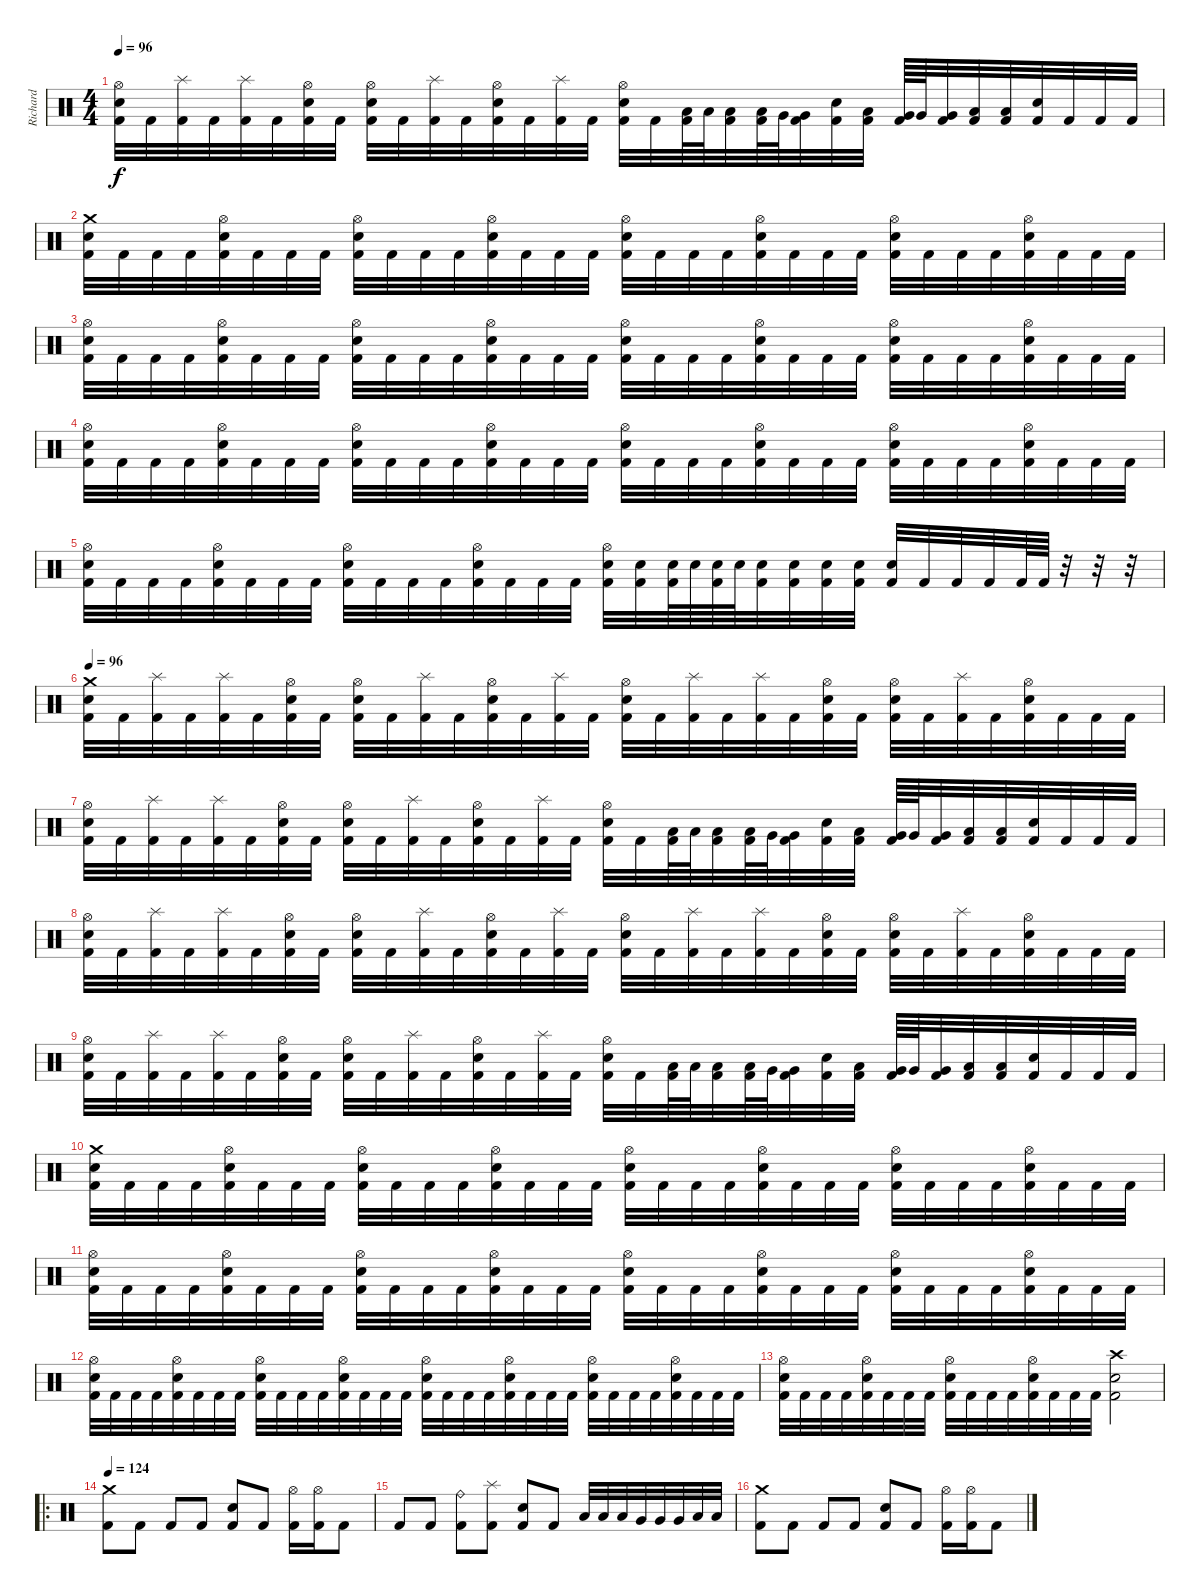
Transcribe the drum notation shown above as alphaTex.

\track ("Richard" "Richard") {instrument percussion}
\staff {score}
\articulation defaults
\ts (4 4)
\tempo 96
\clef neutral
\ks c
("Hi-Hat (open)" "Electric Snare (hit)" "Kick (hit) 2").32{dy f} "Kick (hit) 2".32 ("Splash (hit)" "Kick (hit) 2").32 "Kick (hit) 2".32 ("Splash (hit)" "Kick (hit) 2").32 "Kick (hit) 2".32 ("Hi-Hat (open)" "Electric Snare (hit)" "Kick (hit) 2").32 "Kick (hit) 2".32 ("Hi-Hat (open)" "Electric Snare (hit)" "Kick (hit) 2").32 "Kick (hit) 2".32 ("Splash (hit)" "Kick (hit) 2").32 "Kick (hit) 2".32 ("Hi-Hat (open)" "Electric Snare (hit)" "Kick (hit) 2").32 "Kick (hit) 2".32 ("Splash (hit)" "Kick (hit) 2").32 "Kick (hit) 2".32 ("Hi-Hat (open)" "Electric Snare (hit)" "Kick (hit) 2").32 "Kick (hit) 2".32 ("Low Tom (hit)" "Kick (hit) 2").64 "Low Tom (hit)".64 ("Low Tom (hit)" "Kick (hit) 2").32 ("Low Tom (hit)" "Kick (hit) 2").64 "Very Low Tom (hit)".64 ("Very Low Tom (hit)" "Kick (hit) 2").32 ("Electric Snare (hit)" "Kick (hit) 2").32 ("Low Tom (hit)" "Kick (hit) 2").32 ("Very Low Tom (hit)" "Kick (hit) 2").64 "Very Low Tom (hit)".64 ("Very Low Tom (hit)" "Kick (hit) 2").32 ("Low Floor Tom (hit)" "Kick (hit) 2").32 ("Low Floor Tom (hit)" "Kick (hit) 2").32 ("Electric Snare (hit)" "Kick (hit) 2").32 "Kick (hit) 2".32 "Kick (hit) 2".32 "Kick (hit) 2".32 |
("Crash medium (hit)" "Electric Snare (hit)" "Kick (hit) 2").32 "Kick (hit) 2".32 "Kick (hit) 2".32 "Kick (hit) 2".32 ("Hi-Hat (open)" "Electric Snare (hit)" "Kick (hit) 2").32 "Kick (hit) 2".32 "Kick (hit) 2".32 "Kick (hit) 2".32 ("Hi-Hat (open)" "Electric Snare (hit)" "Kick (hit) 2").32 "Kick (hit) 2".32 "Kick (hit) 2".32 "Kick (hit) 2".32 ("Hi-Hat (open)" "Electric Snare (hit)" "Kick (hit) 2").32 "Kick (hit) 2".32 "Kick (hit) 2".32 "Kick (hit) 2".32 ("Hi-Hat (open)" "Electric Snare (hit)" "Kick (hit) 2").32 "Kick (hit) 2".32 "Kick (hit) 2".32 "Kick (hit) 2".32 ("Hi-Hat (open)" "Electric Snare (hit)" "Kick (hit) 2").32 "Kick (hit) 2".32 "Kick (hit) 2".32 "Kick (hit) 2".32 ("Hi-Hat (open)" "Electric Snare (hit)" "Kick (hit) 2").32 "Kick (hit) 2".32 "Kick (hit) 2".32 "Kick (hit) 2".32 ("Hi-Hat (open)" "Electric Snare (hit)" "Kick (hit) 2").32 "Kick (hit) 2".32 "Kick (hit) 2".32 "Kick (hit) 2".32 |
("Hi-Hat (open)" "Electric Snare (hit)" "Kick (hit) 2").32 "Kick (hit) 2".32 "Kick (hit) 2".32 "Kick (hit) 2".32 ("Hi-Hat (open)" "Electric Snare (hit)" "Kick (hit) 2").32 "Kick (hit) 2".32 "Kick (hit) 2".32 "Kick (hit) 2".32 ("Hi-Hat (open)" "Electric Snare (hit)" "Kick (hit) 2").32 "Kick (hit) 2".32 "Kick (hit) 2".32 "Kick (hit) 2".32 ("Hi-Hat (open)" "Electric Snare (hit)" "Kick (hit) 2").32 "Kick (hit) 2".32 "Kick (hit) 2".32 "Kick (hit) 2".32 ("Hi-Hat (open)" "Electric Snare (hit)" "Kick (hit) 2").32 "Kick (hit) 2".32 "Kick (hit) 2".32 "Kick (hit) 2".32 ("Hi-Hat (open)" "Electric Snare (hit)" "Kick (hit) 2").32 "Kick (hit) 2".32 "Kick (hit) 2".32 "Kick (hit) 2".32 ("Hi-Hat (open)" "Electric Snare (hit)" "Kick (hit) 2").32 "Kick (hit) 2".32 "Kick (hit) 2".32 "Kick (hit) 2".32 ("Hi-Hat (open)" "Electric Snare (hit)" "Kick (hit) 2").32 "Kick (hit) 2".32 "Kick (hit) 2".32 "Kick (hit) 2".32 |
("Hi-Hat (open)" "Electric Snare (hit)" "Kick (hit) 2").32 "Kick (hit) 2".32 "Kick (hit) 2".32 "Kick (hit) 2".32 ("Hi-Hat (open)" "Electric Snare (hit)" "Kick (hit) 2").32 "Kick (hit) 2".32 "Kick (hit) 2".32 "Kick (hit) 2".32 ("Hi-Hat (open)" "Electric Snare (hit)" "Kick (hit) 2").32 "Kick (hit) 2".32 "Kick (hit) 2".32 "Kick (hit) 2".32 ("Hi-Hat (open)" "Electric Snare (hit)" "Kick (hit) 2").32 "Kick (hit) 2".32 "Kick (hit) 2".32 "Kick (hit) 2".32 ("Hi-Hat (open)" "Electric Snare (hit)" "Kick (hit) 2").32 "Kick (hit) 2".32 "Kick (hit) 2".32 "Kick (hit) 2".32 ("Hi-Hat (open)" "Electric Snare (hit)" "Kick (hit) 2").32 "Kick (hit) 2".32 "Kick (hit) 2".32 "Kick (hit) 2".32 ("Hi-Hat (open)" "Electric Snare (hit)" "Kick (hit) 2").32 "Kick (hit) 2".32 "Kick (hit) 2".32 "Kick (hit) 2".32 ("Hi-Hat (open)" "Electric Snare (hit)" "Kick (hit) 2").32 "Kick (hit) 2".32 "Kick (hit) 2".32 "Kick (hit) 2".32 |
("Hi-Hat (open)" "Electric Snare (hit)" "Kick (hit) 2").32 "Kick (hit) 2".32 "Kick (hit) 2".32 "Kick (hit) 2".32 ("Hi-Hat (open)" "Electric Snare (hit)" "Kick (hit) 2").32 "Kick (hit) 2".32 "Kick (hit) 2".32 "Kick (hit) 2".32 ("Hi-Hat (open)" "Electric Snare (hit)" "Kick (hit) 2").32 "Kick (hit) 2".32 "Kick (hit) 2".32 "Kick (hit) 2".32 ("Hi-Hat (open)" "Electric Snare (hit)" "Kick (hit) 2").32 "Kick (hit) 2".32 "Kick (hit) 2".32 "Kick (hit) 2".32 ("Hi-Hat (open)" "Electric Snare (hit)" "Kick (hit) 2").32 ("Electric Snare (hit)" "Kick (hit) 2").32 ("Electric Snare (hit)" "Kick (hit) 2").64 "Electric Snare (hit)".64 ("Electric Snare (hit)" "Kick (hit) 2").64 "Electric Snare (hit)".64 ("Electric Snare (hit)" "Kick (hit) 2").32 ("Electric Snare (hit)" "Kick (hit) 2").32 ("Electric Snare (hit)" "Kick (hit) 2").32 ("Electric Snare (hit)" "Kick (hit) 2").32 ("Electric Snare (hit)" "Kick (hit) 2").32 "Kick (hit) 2".32 "Kick (hit) 2".32 "Kick (hit) 2".32 "Kick (hit) 2".64 "Kick (hit) 2".64 r.32 r.32 r.32 |
\tempo 96
("Crash medium (hit)" "Electric Snare (hit)" "Kick (hit) 2").32 "Kick (hit) 2".32 ("Splash (hit)" "Kick (hit) 2").32 "Kick (hit) 2".32 ("Splash (hit)" "Kick (hit) 2").32 "Kick (hit) 2".32 ("Hi-Hat (open)" "Electric Snare (hit)" "Kick (hit) 2").32 "Kick (hit) 2".32 ("Hi-Hat (open)" "Electric Snare (hit)" "Kick (hit) 2").32 "Kick (hit) 2".32 ("Splash (hit)" "Kick (hit) 2").32 "Kick (hit) 2".32 ("Hi-Hat (open)" "Electric Snare (hit)" "Kick (hit) 2").32 "Kick (hit) 2".32 ("Splash (hit)" "Kick (hit) 2").32 "Kick (hit) 2".32 ("Hi-Hat (open)" "Electric Snare (hit)" "Kick (hit) 2").32 "Kick (hit) 2".32 ("Splash (hit)" "Kick (hit) 2").32 "Kick (hit) 2".32 ("Splash (hit)" "Kick (hit) 2").32 "Kick (hit) 2".32 ("Hi-Hat (open)" "Electric Snare (hit)" "Kick (hit) 2").32 "Kick (hit) 2".32 ("Hi-Hat (open)" "Electric Snare (hit)" "Kick (hit) 2").32 "Kick (hit) 2".32 ("Splash (hit)" "Kick (hit) 2").32 "Kick (hit) 2".32 ("Hi-Hat (open)" "Electric Snare (hit)" "Kick (hit) 2").32 "Kick (hit) 2".32 "Kick (hit) 2".32 "Kick (hit) 2".32 |
("Hi-Hat (open)" "Electric Snare (hit)" "Kick (hit) 2").32 "Kick (hit) 2".32 ("Splash (hit)" "Kick (hit) 2").32 "Kick (hit) 2".32 ("Splash (hit)" "Kick (hit) 2").32 "Kick (hit) 2".32 ("Hi-Hat (open)" "Electric Snare (hit)" "Kick (hit) 2").32 "Kick (hit) 2".32 ("Hi-Hat (open)" "Electric Snare (hit)" "Kick (hit) 2").32 "Kick (hit) 2".32 ("Splash (hit)" "Kick (hit) 2").32 "Kick (hit) 2".32 ("Hi-Hat (open)" "Electric Snare (hit)" "Kick (hit) 2").32 "Kick (hit) 2".32 ("Splash (hit)" "Kick (hit) 2").32 "Kick (hit) 2".32 ("Hi-Hat (open)" "Electric Snare (hit)" "Kick (hit) 2").32 "Kick (hit) 2".32 ("Low Tom (hit)" "Kick (hit) 2").64 "Low Tom (hit)".64 ("Low Tom (hit)" "Kick (hit) 2").32 ("Low Tom (hit)" "Kick (hit) 2").64 "Very Low Tom (hit)".64 ("Very Low Tom (hit)" "Kick (hit) 2").32 ("Electric Snare (hit)" "Kick (hit) 2").32 ("Low Tom (hit)" "Kick (hit) 2").32 ("Very Low Tom (hit)" "Kick (hit) 2").64 "Very Low Tom (hit)".64 ("Very Low Tom (hit)" "Kick (hit) 2").32 ("Low Floor Tom (hit)" "Kick (hit) 2").32 ("Low Floor Tom (hit)" "Kick (hit) 2").32 ("Electric Snare (hit)" "Kick (hit) 2").32 "Kick (hit) 2".32 "Kick (hit) 2".32 "Kick (hit) 2".32 |
("Hi-Hat (open)" "Electric Snare (hit)" "Kick (hit) 2").32 "Kick (hit) 2".32 ("Splash (hit)" "Kick (hit) 2").32 "Kick (hit) 2".32 ("Splash (hit)" "Kick (hit) 2").32 "Kick (hit) 2".32 ("Hi-Hat (open)" "Electric Snare (hit)" "Kick (hit) 2").32 "Kick (hit) 2".32 ("Hi-Hat (open)" "Electric Snare (hit)" "Kick (hit) 2").32 "Kick (hit) 2".32 ("Splash (hit)" "Kick (hit) 2").32 "Kick (hit) 2".32 ("Hi-Hat (open)" "Electric Snare (hit)" "Kick (hit) 2").32 "Kick (hit) 2".32 ("Splash (hit)" "Kick (hit) 2").32 "Kick (hit) 2".32 ("Hi-Hat (open)" "Electric Snare (hit)" "Kick (hit) 2").32 "Kick (hit) 2".32 ("Splash (hit)" "Kick (hit) 2").32 "Kick (hit) 2".32 ("Splash (hit)" "Kick (hit) 2").32 "Kick (hit) 2".32 ("Hi-Hat (open)" "Electric Snare (hit)" "Kick (hit) 2").32 "Kick (hit) 2".32 ("Hi-Hat (open)" "Electric Snare (hit)" "Kick (hit) 2").32 "Kick (hit) 2".32 ("Splash (hit)" "Kick (hit) 2").32 "Kick (hit) 2".32 ("Hi-Hat (open)" "Electric Snare (hit)" "Kick (hit) 2").32 "Kick (hit) 2".32 "Kick (hit) 2".32 "Kick (hit) 2".32 |
("Hi-Hat (open)" "Electric Snare (hit)" "Kick (hit) 2").32 "Kick (hit) 2".32 ("Splash (hit)" "Kick (hit) 2").32 "Kick (hit) 2".32 ("Splash (hit)" "Kick (hit) 2").32 "Kick (hit) 2".32 ("Hi-Hat (open)" "Electric Snare (hit)" "Kick (hit) 2").32 "Kick (hit) 2".32 ("Hi-Hat (open)" "Electric Snare (hit)" "Kick (hit) 2").32 "Kick (hit) 2".32 ("Splash (hit)" "Kick (hit) 2").32 "Kick (hit) 2".32 ("Hi-Hat (open)" "Electric Snare (hit)" "Kick (hit) 2").32 "Kick (hit) 2".32 ("Splash (hit)" "Kick (hit) 2").32 "Kick (hit) 2".32 ("Hi-Hat (open)" "Electric Snare (hit)" "Kick (hit) 2").32 "Kick (hit) 2".32 ("Low Tom (hit)" "Kick (hit) 2").64 "Low Tom (hit)".64 ("Low Tom (hit)" "Kick (hit) 2").32 ("Low Tom (hit)" "Kick (hit) 2").64 "Very Low Tom (hit)".64 ("Very Low Tom (hit)" "Kick (hit) 2").32 ("Electric Snare (hit)" "Kick (hit) 2").32 ("Low Tom (hit)" "Kick (hit) 2").32 ("Very Low Tom (hit)" "Kick (hit) 2").64 "Very Low Tom (hit)".64 ("Very Low Tom (hit)" "Kick (hit) 2").32 ("Low Floor Tom (hit)" "Kick (hit) 2").32 ("Low Floor Tom (hit)" "Kick (hit) 2").32 ("Electric Snare (hit)" "Kick (hit) 2").32 "Kick (hit) 2".32 "Kick (hit) 2".32 "Kick (hit) 2".32 |
("Crash medium (hit)" "Electric Snare (hit)" "Kick (hit) 2").32 "Kick (hit) 2".32 "Kick (hit) 2".32 "Kick (hit) 2".32 ("Hi-Hat (open)" "Electric Snare (hit)" "Kick (hit) 2").32 "Kick (hit) 2".32 "Kick (hit) 2".32 "Kick (hit) 2".32 ("Hi-Hat (open)" "Electric Snare (hit)" "Kick (hit) 2").32 "Kick (hit) 2".32 "Kick (hit) 2".32 "Kick (hit) 2".32 ("Hi-Hat (open)" "Electric Snare (hit)" "Kick (hit) 2").32 "Kick (hit) 2".32 "Kick (hit) 2".32 "Kick (hit) 2".32 ("Hi-Hat (open)" "Electric Snare (hit)" "Kick (hit) 2").32 "Kick (hit) 2".32 "Kick (hit) 2".32 "Kick (hit) 2".32 ("Hi-Hat (open)" "Electric Snare (hit)" "Kick (hit) 2").32 "Kick (hit) 2".32 "Kick (hit) 2".32 "Kick (hit) 2".32 ("Hi-Hat (open)" "Electric Snare (hit)" "Kick (hit) 2").32 "Kick (hit) 2".32 "Kick (hit) 2".32 "Kick (hit) 2".32 ("Hi-Hat (open)" "Electric Snare (hit)" "Kick (hit) 2").32 "Kick (hit) 2".32 "Kick (hit) 2".32 "Kick (hit) 2".32 |
("Hi-Hat (open)" "Electric Snare (hit)" "Kick (hit) 2").32 "Kick (hit) 2".32 "Kick (hit) 2".32 "Kick (hit) 2".32 ("Hi-Hat (open)" "Electric Snare (hit)" "Kick (hit) 2").32 "Kick (hit) 2".32 "Kick (hit) 2".32 "Kick (hit) 2".32 ("Hi-Hat (open)" "Electric Snare (hit)" "Kick (hit) 2").32 "Kick (hit) 2".32 "Kick (hit) 2".32 "Kick (hit) 2".32 ("Hi-Hat (open)" "Electric Snare (hit)" "Kick (hit) 2").32 "Kick (hit) 2".32 "Kick (hit) 2".32 "Kick (hit) 2".32 ("Hi-Hat (open)" "Electric Snare (hit)" "Kick (hit) 2").32 "Kick (hit) 2".32 "Kick (hit) 2".32 "Kick (hit) 2".32 ("Hi-Hat (open)" "Electric Snare (hit)" "Kick (hit) 2").32 "Kick (hit) 2".32 "Kick (hit) 2".32 "Kick (hit) 2".32 ("Hi-Hat (open)" "Electric Snare (hit)" "Kick (hit) 2").32 "Kick (hit) 2".32 "Kick (hit) 2".32 "Kick (hit) 2".32 ("Hi-Hat (open)" "Electric Snare (hit)" "Kick (hit) 2").32 "Kick (hit) 2".32 "Kick (hit) 2".32 "Kick (hit) 2".32 |
("Hi-Hat (open)" "Electric Snare (hit)" "Kick (hit) 2").32 "Kick (hit) 2".32 "Kick (hit) 2".32 "Kick (hit) 2".32 ("Hi-Hat (open)" "Electric Snare (hit)" "Kick (hit) 2").32 "Kick (hit) 2".32 "Kick (hit) 2".32 "Kick (hit) 2".32 ("Hi-Hat (open)" "Electric Snare (hit)" "Kick (hit) 2").32 "Kick (hit) 2".32 "Kick (hit) 2".32 "Kick (hit) 2".32 ("Hi-Hat (open)" "Electric Snare (hit)" "Kick (hit) 2").32 "Kick (hit) 2".32 "Kick (hit) 2".32 "Kick (hit) 2".32 ("Hi-Hat (open)" "Electric Snare (hit)" "Kick (hit) 2").32 "Kick (hit) 2".32 "Kick (hit) 2".32 "Kick (hit) 2".32 ("Hi-Hat (open)" "Electric Snare (hit)" "Kick (hit) 2").32 "Kick (hit) 2".32 "Kick (hit) 2".32 "Kick (hit) 2".32 ("Hi-Hat (open)" "Electric Snare (hit)" "Kick (hit) 2").32 "Kick (hit) 2".32 "Kick (hit) 2".32 "Kick (hit) 2".32 ("Hi-Hat (open)" "Electric Snare (hit)" "Kick (hit) 2").32 "Kick (hit) 2".32 "Kick (hit) 2".32 "Kick (hit) 2".32 |
("Hi-Hat (open)" "Electric Snare (hit)" "Kick (hit) 2").32 "Kick (hit) 2".32 "Kick (hit) 2".32 "Kick (hit) 2".32 ("Hi-Hat (open)" "Electric Snare (hit)" "Kick (hit) 2").32 "Kick (hit) 2".32 "Kick (hit) 2".32 "Kick (hit) 2".32 ("Hi-Hat (open)" "Electric Snare (hit)" "Kick (hit) 2").32 "Kick (hit) 2".32 "Kick (hit) 2".32 "Kick (hit) 2".32 ("Hi-Hat (open)" "Electric Snare (hit)" "Kick (hit) 2").32 "Kick (hit) 2".32 "Kick (hit) 2".32 "Kick (hit) 2".32 ("Crash high (hit)" "Electric Snare (hit)" "Kick (hit) 2").2 |
\ro
\tempo 124
("Crash medium (hit)" "Kick (hit) 2").8 "Kick (hit) 2".8 "Kick (hit) 2".8 "Kick (hit) 2".8 ("Electric Snare (hit)" "Kick (hit) 2").8 "Kick (hit) 2".8 ("Hi-Hat (open)" "Kick (hit) 2").16 ("Hi-Hat (open)" "Kick (hit) 2").16 "Kick (hit) 2".8 |
"Kick (hit) 2".8 "Kick (hit) 2".8 ("Ride (bell)" "Kick (hit) 2").8 ("Splash (hit)" "Kick (hit) 2").8 ("Electric Snare (hit)" "Kick (hit) 2").8 "Kick (hit) 2".8 "Low Tom (hit)".32 "Low Tom (hit)".32 "Low Tom (hit)".32 "Very Low Tom (hit)".32 "Very Low Tom (hit)".32 "Very Low Tom (hit)".32 "Low Floor Tom (hit)".32 "Low Floor Tom (hit)".32 |
("Crash medium (hit)" "Kick (hit) 2").8 "Kick (hit) 2".8 "Kick (hit) 2".8 "Kick (hit) 2".8 ("Electric Snare (hit)" "Kick (hit) 2").8 "Kick (hit) 2".8 ("Hi-Hat (open)" "Kick (hit) 2").16 ("Hi-Hat (open)" "Kick (hit) 2").16 "Kick (hit) 2".8
